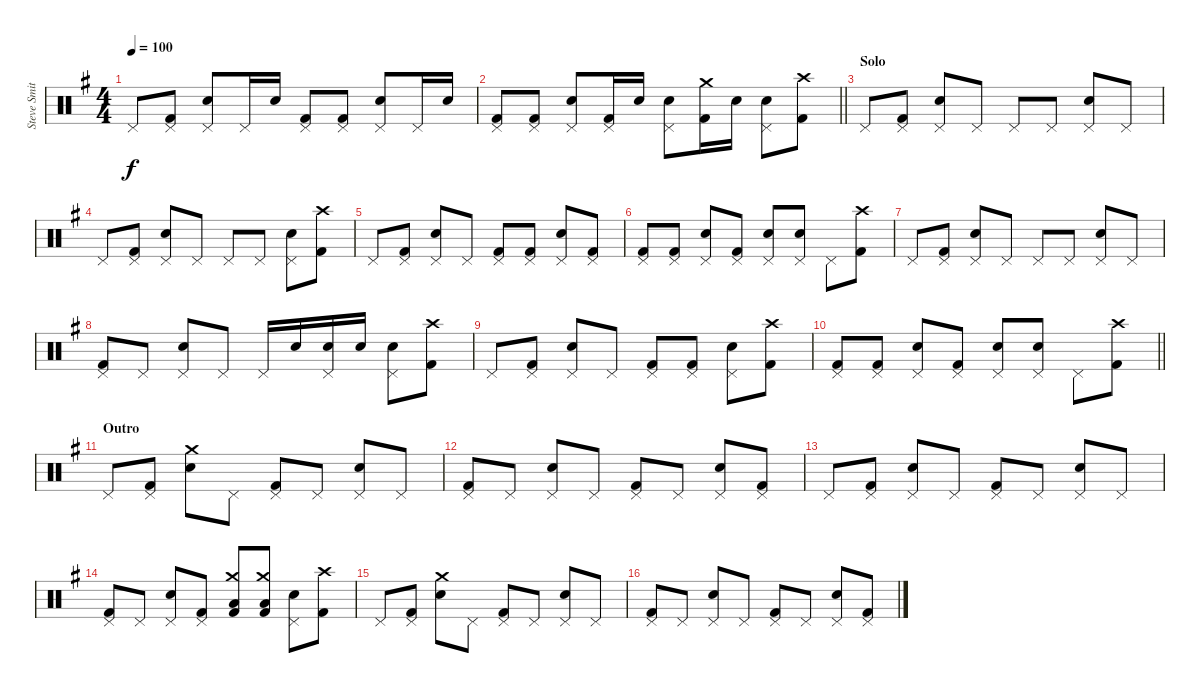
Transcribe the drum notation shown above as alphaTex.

\track ("Steve Smith" "Steve Smit") {instrument percussion}
\staff {score}
\articulation defaults
\ts (4 4)
\tempo 100
\clef neutral
\ks g "Pedal Hi-Hat (hit)".8{dy f}
("Pedal Hi-Hat (hit)" "Kick (hit) 2").8 ("Pedal Hi-Hat (hit)" "Snare (hit) 2").8 "Pedal Hi-Hat (hit)".16 "Snare (hit) 2".16 ("Pedal Hi-Hat (hit)" "Kick (hit) 2").8 ("Pedal Hi-Hat (hit)" "Kick (hit) 2").8 ("Pedal Hi-Hat (hit)" "Snare (hit) 2").8 "Pedal Hi-Hat (hit)".16 "Snare (hit) 2".16 |
\barLineRight lightlight
("Pedal Hi-Hat (hit)" "Kick (hit) 2").8 ("Pedal Hi-Hat (hit)" "Kick (hit) 2").8 ("Pedal Hi-Hat (hit)" "Snare (hit) 2").8 ("Pedal Hi-Hat (hit)" "Kick (hit) 2").16 "Snare (hit) 2".16 ("Pedal Hi-Hat (hit)" "Snare (hit) 2").8 ("Crash medium (hit)" "Kick (hit) 2").16 "Snare (hit) 2".16 ("Pedal Hi-Hat (hit)" "Snare (hit) 2").8 ("Crash high (hit)" "Kick (hit) 2").8 |
\section ("" "Solo")
"Pedal Hi-Hat (hit)".8 ("Pedal Hi-Hat (hit)" "Kick (hit) 2").8 ("Pedal Hi-Hat (hit)" "Snare (hit) 2").8 "Pedal Hi-Hat (hit)".8 "Pedal Hi-Hat (hit)".8 "Pedal Hi-Hat (hit)".8 ("Pedal Hi-Hat (hit)" "Snare (hit) 2").8 "Pedal Hi-Hat (hit)".8 |
"Pedal Hi-Hat (hit)".8 ("Pedal Hi-Hat (hit)" "Kick (hit) 2").8 ("Pedal Hi-Hat (hit)" "Snare (hit) 2").8 "Pedal Hi-Hat (hit)".8 "Pedal Hi-Hat (hit)".8 "Pedal Hi-Hat (hit)".8 ("Pedal Hi-Hat (hit)" "Snare (hit) 2").8 ("Crash high (hit)" "Kick (hit) 2").8 |
"Pedal Hi-Hat (hit)".8 ("Pedal Hi-Hat (hit)" "Kick (hit) 2").8 ("Pedal Hi-Hat (hit)" "Snare (hit) 2").8 "Pedal Hi-Hat (hit)".8 ("Pedal Hi-Hat (hit)" "Kick (hit) 2").8 ("Pedal Hi-Hat (hit)" "Kick (hit) 2").8 ("Pedal Hi-Hat (hit)" "Snare (hit) 2").8 ("Pedal Hi-Hat (hit)" "Kick (hit) 2").8 |
("Pedal Hi-Hat (hit)" "Kick (hit) 2").8 ("Pedal Hi-Hat (hit)" "Kick (hit) 2").8 ("Pedal Hi-Hat (hit)" "Snare (hit) 2").8 ("Pedal Hi-Hat (hit)" "Kick (hit) 2").8 ("Pedal Hi-Hat (hit)" "Snare (hit) 2").8 ("Pedal Hi-Hat (hit)" "Snare (hit) 2").8 "Pedal Hi-Hat (hit)".8 ("Crash high (hit)" "Kick (hit) 2").8 |
"Pedal Hi-Hat (hit)".8 ("Pedal Hi-Hat (hit)" "Kick (hit) 2").8 ("Pedal Hi-Hat (hit)" "Snare (hit) 2").8 "Pedal Hi-Hat (hit)".8 "Pedal Hi-Hat (hit)".8 "Pedal Hi-Hat (hit)".8 ("Pedal Hi-Hat (hit)" "Snare (hit) 2").8 "Pedal Hi-Hat (hit)".8 |
("Pedal Hi-Hat (hit)" "Kick (hit) 2").8 "Pedal Hi-Hat (hit)".8 ("Pedal Hi-Hat (hit)" "Snare (hit) 2").8 "Pedal Hi-Hat (hit)".8 "Pedal Hi-Hat (hit)".16 "Snare (hit) 2".16 ("Pedal Hi-Hat (hit)" "Snare (hit) 2").16 "Snare (hit) 2".16 ("Pedal Hi-Hat (hit)" "Snare (hit) 2").8 ("Crash high (hit)" "Kick (hit) 2").8 |
"Pedal Hi-Hat (hit)".8 ("Pedal Hi-Hat (hit)" "Kick (hit) 2").8 ("Pedal Hi-Hat (hit)" "Snare (hit) 2").8 "Pedal Hi-Hat (hit)".8 ("Pedal Hi-Hat (hit)" "Kick (hit) 2").8 ("Pedal Hi-Hat (hit)" "Kick (hit) 2").8 ("Pedal Hi-Hat (hit)" "Snare (hit) 2").8 ("Crash high (hit)" "Kick (hit) 2").8 |
\barLineRight lightlight
("Pedal Hi-Hat (hit)" "Kick (hit) 2").8 ("Pedal Hi-Hat (hit)" "Kick (hit) 2").8 ("Pedal Hi-Hat (hit)" "Snare (hit) 2").8 ("Pedal Hi-Hat (hit)" "Kick (hit) 2").8 ("Pedal Hi-Hat (hit)" "Snare (hit) 2").8 ("Pedal Hi-Hat (hit)" "Snare (hit) 2").8 "Pedal Hi-Hat (hit)".8 ("Crash high (hit)" "Kick (hit) 2").8 |
\section ("" "Outro")
"Pedal Hi-Hat (hit)".8 ("Pedal Hi-Hat (hit)" "Kick (hit) 2").8 ("Crash medium (hit)" "Snare (hit) 2").8 "Pedal Hi-Hat (hit)".8 ("Pedal Hi-Hat (hit)" "Kick (hit) 2").8 "Pedal Hi-Hat (hit)".8 ("Pedal Hi-Hat (hit)" "Snare (hit) 2").8 "Pedal Hi-Hat (hit)".8 |
("Pedal Hi-Hat (hit)" "Kick (hit) 2").8 "Pedal Hi-Hat (hit)".8 ("Pedal Hi-Hat (hit)" "Snare (hit) 2").8 "Pedal Hi-Hat (hit)".8 ("Pedal Hi-Hat (hit)" "Kick (hit) 2").8 "Pedal Hi-Hat (hit)".8 ("Pedal Hi-Hat (hit)" "Snare (hit) 2").8 ("Pedal Hi-Hat (hit)" "Kick (hit) 2").8 |
"Pedal Hi-Hat (hit)".8 ("Pedal Hi-Hat (hit)" "Kick (hit) 2").8 ("Pedal Hi-Hat (hit)" "Snare (hit) 2").8 "Pedal Hi-Hat (hit)".8 ("Pedal Hi-Hat (hit)" "Kick (hit) 2").8 "Pedal Hi-Hat (hit)".8 ("Pedal Hi-Hat (hit)" "Snare (hit) 2").8 "Pedal Hi-Hat (hit)".8 |
("Pedal Hi-Hat (hit)" "Kick (hit) 2").8 "Pedal Hi-Hat (hit)".8 ("Pedal Hi-Hat (hit)" "Snare (hit) 2").8 ("Pedal Hi-Hat (hit)" "Kick (hit) 2").8 ("Crash medium (hit)" "Low Tom (hit)" "Kick (hit) 2").8 ("Crash medium (hit)" "Low Tom (hit)" "Kick (hit) 2").8 ("Pedal Hi-Hat (hit)" "Snare (hit) 2").8 ("Crash high (hit)" "Kick (hit) 2").8 |
"Pedal Hi-Hat (hit)".8 ("Pedal Hi-Hat (hit)" "Kick (hit) 2").8 ("Crash medium (hit)" "Snare (hit) 2").8 "Pedal Hi-Hat (hit)".8 ("Pedal Hi-Hat (hit)" "Kick (hit) 2").8 "Pedal Hi-Hat (hit)".8 ("Pedal Hi-Hat (hit)" "Snare (hit) 2").8 "Pedal Hi-Hat (hit)".8 |
("Pedal Hi-Hat (hit)" "Kick (hit) 2").8 "Pedal Hi-Hat (hit)".8 ("Pedal Hi-Hat (hit)" "Snare (hit) 2").8 "Pedal Hi-Hat (hit)".8 ("Pedal Hi-Hat (hit)" "Kick (hit) 2").8 "Pedal Hi-Hat (hit)".8 ("Pedal Hi-Hat (hit)" "Snare (hit) 2").8 ("Pedal Hi-Hat (hit)" "Kick (hit) 2").8
